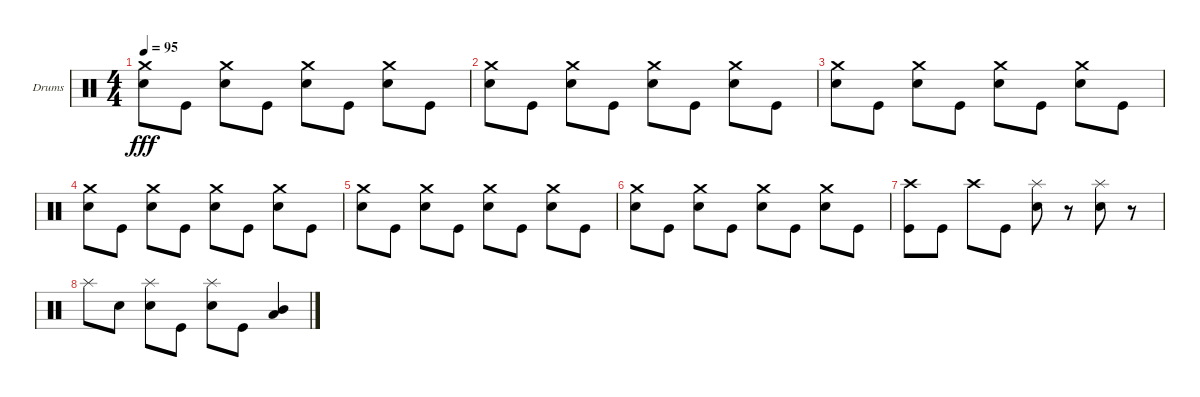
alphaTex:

\bracketExtendMode groupsimilarinstruments
\firstSystemTrackNameOrientation horizontal
\otherSystemsTrackNameOrientation horizontal
\track ("Drumkit" "Drums") {instrument percussion}
\staff {score}
\articulation defaults
\ts (4 4)
\tempo 95
\clef neutral
\ks c
("Crash medium (hit)" "Snare (hit) 2").8{dy fff} "Kick (hit)".8 ("Crash medium (hit)" "Snare (hit) 2").8 "Kick (hit)".8 ("Crash medium (hit)" "Snare (hit) 2").8 "Kick (hit)".8 ("Crash medium (hit)" "Snare (hit) 2").8 "Kick (hit)".8 |
("Crash medium (hit)" "Snare (hit) 2").8 "Kick (hit)".8 ("Crash medium (hit)" "Snare (hit) 2").8 "Kick (hit)".8 ("Crash medium (hit)" "Snare (hit) 2").8 "Kick (hit)".8 ("Crash medium (hit)" "Snare (hit) 2").8 "Kick (hit)".8 |
("Crash medium (hit)" "Snare (hit) 2").8 "Kick (hit)".8 ("Crash medium (hit)" "Snare (hit) 2").8 "Kick (hit)".8 ("Crash medium (hit)" "Snare (hit) 2").8 "Kick (hit)".8 ("Crash medium (hit)" "Snare (hit) 2").8 "Kick (hit)".8 |
("Crash medium (hit)" "Snare (hit) 2").8 "Kick (hit)".8 ("Crash medium (hit)" "Snare (hit) 2").8 "Kick (hit)".8 ("Crash medium (hit)" "Snare (hit) 2").8 "Kick (hit)".8 ("Crash medium (hit)" "Snare (hit) 2").8 "Kick (hit)".8 |
("Crash medium (hit)" "Snare (hit) 2").8 "Kick (hit)".8 ("Crash medium (hit)" "Snare (hit) 2").8 "Kick (hit)".8 ("Crash medium (hit)" "Snare (hit) 2").8 "Kick (hit)".8 ("Crash medium (hit)" "Snare (hit) 2").8 "Kick (hit)".8 |
("Crash medium (hit)" "Snare (hit) 2").8 "Kick (hit)".8 ("Crash medium (hit)" "Snare (hit) 2").8 "Kick (hit)".8 ("Crash medium (hit)" "Snare (hit) 2").8 "Kick (hit)".8 ("Crash medium (hit)" "Snare (hit) 2").8 "Kick (hit)".8 |
("Crash high (hit)" "Kick (hit)").8 "Kick (hit)".8 "Crash high (hit)".8 "Kick (hit)".8 ("Splash (hit)" "Snare (hit) 2").8 r.8 ("Splash (hit)" "Snare (hit) 2").8 r.8 |
"Splash (hit)".8 "Snare (hit) 2".8 ("Splash (hit)" "Snare (hit) 2").8 "Kick (hit)".8 ("Splash (hit)" "Snare (hit) 2").8 "Kick (hit)".8 ("Low Tom (hit)" "Mid Tom (hit)").4
